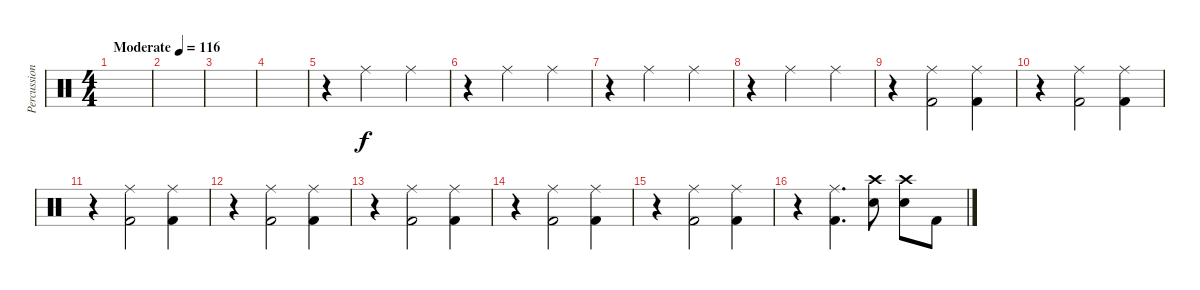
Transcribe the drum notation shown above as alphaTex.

\track ("Percussion" "Percussion") {instrument percussion}
\staff {score}
\articulation defaults
\ts (4 4)
\tempo (116 "Moderate")
\clef neutral
\ks c
|
|
|
|
r.4 "Ride (middle)".2 "Ride (middle)".4 |
r.4 "Ride (middle)".2 "Ride (middle)".4 |
r.4 "Ride (middle)".2 "Ride (middle)".4 |
r.4 "Ride (middle)".2 "Ride (middle)".4 |
r.4 ("Kick (hit) 2" "Ride (middle)").2 ("Kick (hit) 2" "Ride (middle)").4 |
r.4 ("Kick (hit) 2" "Ride (middle)").2 ("Kick (hit) 2" "Ride (middle)").4 |
r.4 ("Kick (hit) 2" "Ride (middle)").2 ("Kick (hit) 2" "Ride (middle)").4 |
r.4 ("Kick (hit) 2" "Ride (middle)").2 ("Kick (hit) 2" "Ride (middle)").4 |
r.4 ("Kick (hit) 2" "Ride (middle)").2 ("Kick (hit) 2" "Ride (middle)").4 |
r.4 ("Kick (hit) 2" "Ride (middle)").2 ("Kick (hit) 2" "Ride (middle)").4 |
r.4 ("Kick (hit) 2" "Ride (middle)").2 ("Kick (hit) 2" "Ride (middle)").4 |
r.4 ("Kick (hit) 2" "Ride (middle)").4{d} ("Snare (hit) 2" "Crash high (hit)").8 ("Snare (hit) 2" "Crash high (hit)").8 "Kick (hit) 2".8
